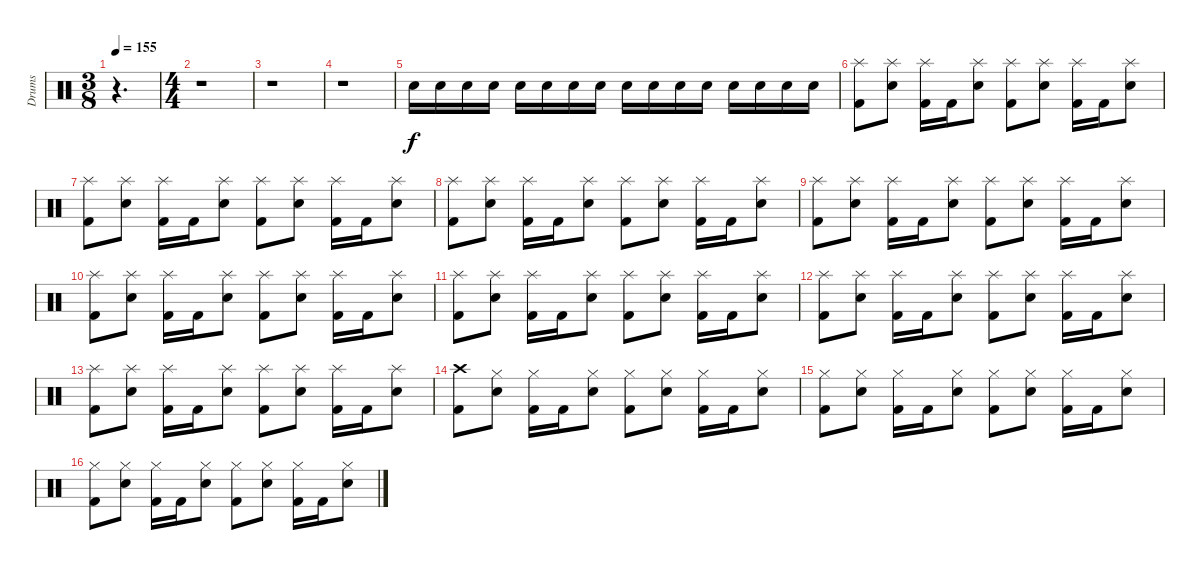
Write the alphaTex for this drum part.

\track ("Drums" "Drums") {instrument percussion}
\staff {score}
\articulation defaults
\ts (3 8)
\tempo 155
\clef neutral
\ks c
r.4{d dy f} |
\ts (4 4)
r.1 |
r.1 |
r.1 |
"Snare (hit) 2".16 "Snare (hit) 2".16 "Snare (hit) 2".16 "Snare (hit) 2".16 "Snare (hit) 2".16 "Snare (hit) 2".16 "Snare (hit) 2".16 "Snare (hit) 2".16 "Snare (hit) 2".16 "Snare (hit) 2".16 "Snare (hit) 2".16 "Snare (hit) 2".16 "Snare (hit) 2".16 "Snare (hit) 2".16 "Snare (hit) 2".16 "Snare (hit) 2".16 |
("Splash (hit)" "Kick (hit) 2").8 ("Splash (hit)" "Snare (hit) 2").8 ("Splash (hit)" "Kick (hit) 2").16 "Kick (hit) 2".16 ("Splash (hit)" "Snare (hit) 2").8 ("Splash (hit)" "Kick (hit) 2").8 ("Splash (hit)" "Snare (hit) 2").8 ("Splash (hit)" "Kick (hit) 2").16 "Kick (hit) 2".16 ("Splash (hit)" "Snare (hit) 2").8 |
("Splash (hit)" "Kick (hit) 2").8 ("Splash (hit)" "Snare (hit) 2").8 ("Splash (hit)" "Kick (hit) 2").16 "Kick (hit) 2".16 ("Splash (hit)" "Snare (hit) 2").8 ("Splash (hit)" "Kick (hit) 2").8 ("Splash (hit)" "Snare (hit) 2").8 ("Splash (hit)" "Kick (hit) 2").16 "Kick (hit) 2".16 ("Splash (hit)" "Snare (hit) 2").8 |
("Splash (hit)" "Kick (hit) 2").8 ("Splash (hit)" "Snare (hit) 2").8 ("Splash (hit)" "Kick (hit) 2").16 "Kick (hit) 2".16 ("Splash (hit)" "Snare (hit) 2").8 ("Splash (hit)" "Kick (hit) 2").8 ("Splash (hit)" "Snare (hit) 2").8 ("Splash (hit)" "Kick (hit) 2").16 "Kick (hit) 2".16 ("Splash (hit)" "Snare (hit) 2").8 |
("Splash (hit)" "Kick (hit) 2").8 ("Splash (hit)" "Snare (hit) 2").8 ("Splash (hit)" "Kick (hit) 2").16 "Kick (hit) 2".16 ("Splash (hit)" "Snare (hit) 2").8 ("Splash (hit)" "Kick (hit) 2").8 ("Splash (hit)" "Snare (hit) 2").8 ("Splash (hit)" "Kick (hit) 2").16 "Kick (hit) 2".16 ("Splash (hit)" "Snare (hit) 2").8 |
("Splash (hit)" "Kick (hit) 2").8 ("Splash (hit)" "Snare (hit) 2").8 ("Splash (hit)" "Kick (hit) 2").16 "Kick (hit) 2".16 ("Splash (hit)" "Snare (hit) 2").8 ("Splash (hit)" "Kick (hit) 2").8 ("Splash (hit)" "Snare (hit) 2").8 ("Splash (hit)" "Kick (hit) 2").16 "Kick (hit) 2".16 ("Splash (hit)" "Snare (hit) 2").8 |
("Splash (hit)" "Kick (hit) 2").8 ("Splash (hit)" "Snare (hit) 2").8 ("Splash (hit)" "Kick (hit) 2").16 "Kick (hit) 2".16 ("Splash (hit)" "Snare (hit) 2").8 ("Splash (hit)" "Kick (hit) 2").8 ("Splash (hit)" "Snare (hit) 2").8 ("Splash (hit)" "Kick (hit) 2").16 "Kick (hit) 2".16 ("Splash (hit)" "Snare (hit) 2").8 |
("Splash (hit)" "Kick (hit) 2").8 ("Splash (hit)" "Snare (hit) 2").8 ("Splash (hit)" "Kick (hit) 2").16 "Kick (hit) 2".16 ("Splash (hit)" "Snare (hit) 2").8 ("Splash (hit)" "Kick (hit) 2").8 ("Splash (hit)" "Snare (hit) 2").8 ("Splash (hit)" "Kick (hit) 2").16 "Kick (hit) 2".16 ("Splash (hit)" "Snare (hit) 2").8 |
("Splash (hit)" "Kick (hit) 2").8 ("Splash (hit)" "Snare (hit) 2").8 ("Splash (hit)" "Kick (hit) 2").16 "Kick (hit) 2".16 ("Splash (hit)" "Snare (hit) 2").8 ("Splash (hit)" "Kick (hit) 2").8 ("Splash (hit)" "Snare (hit) 2").8 ("Splash (hit)" "Kick (hit) 2").16 "Kick (hit) 2".16 ("Splash (hit)" "Snare (hit) 2").8 |
("Crash high (hit)" "Kick (hit) 2").8 ("Hi-Hat (closed)" "Snare (hit) 2").8 ("Hi-Hat (closed)" "Kick (hit) 2").16 "Kick (hit) 2".16 ("Hi-Hat (closed)" "Snare (hit) 2").8 ("Hi-Hat (closed)" "Kick (hit) 2").8 ("Hi-Hat (closed)" "Snare (hit) 2").8 ("Hi-Hat (closed)" "Kick (hit) 2").16 "Kick (hit) 2".16 ("Hi-Hat (closed)" "Snare (hit) 2").8 |
("Hi-Hat (closed)" "Kick (hit) 2").8 ("Hi-Hat (closed)" "Snare (hit) 2").8 ("Hi-Hat (closed)" "Kick (hit) 2").16 "Kick (hit) 2".16 ("Hi-Hat (closed)" "Snare (hit) 2").8 ("Hi-Hat (closed)" "Kick (hit) 2").8 ("Hi-Hat (closed)" "Snare (hit) 2").8 ("Hi-Hat (closed)" "Kick (hit) 2").16 "Kick (hit) 2".16 ("Hi-Hat (closed)" "Snare (hit) 2").8 |
("Hi-Hat (closed)" "Kick (hit) 2").8 ("Hi-Hat (closed)" "Snare (hit) 2").8 ("Hi-Hat (closed)" "Kick (hit) 2").16 "Kick (hit) 2".16 ("Hi-Hat (closed)" "Snare (hit) 2").8 ("Hi-Hat (closed)" "Kick (hit) 2").8 ("Hi-Hat (closed)" "Snare (hit) 2").8 ("Hi-Hat (closed)" "Kick (hit) 2").16 "Kick (hit) 2".16 ("Hi-Hat (closed)" "Snare (hit) 2").8
